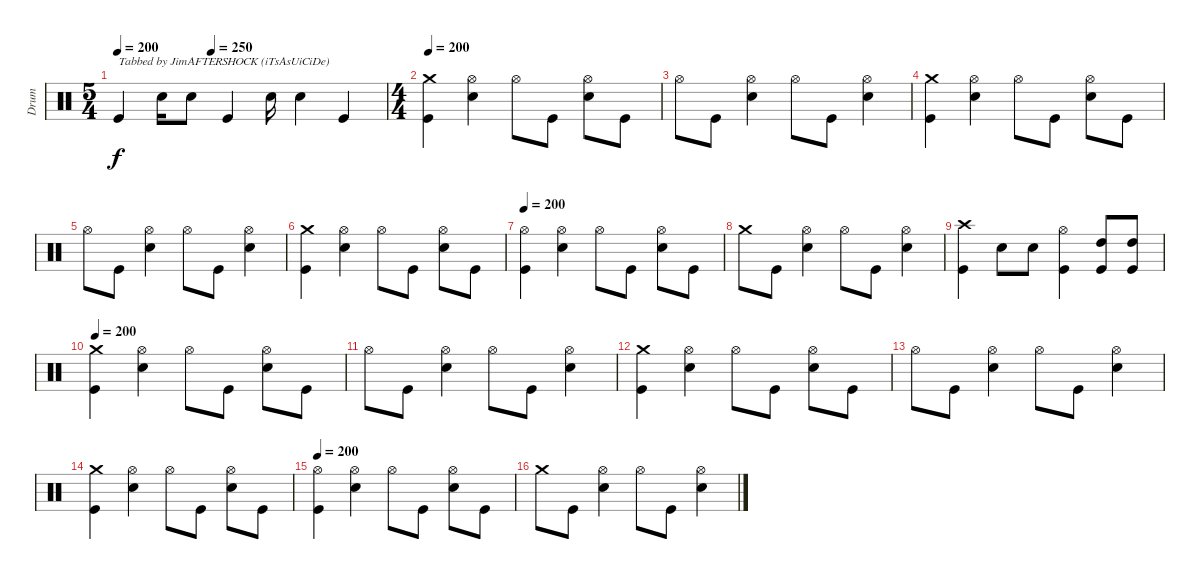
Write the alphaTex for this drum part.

\track ("Drum" "Drum") {instrument percussion}
\staff {score}
\articulation defaults
\ts (5 4)
\tempo 200
\tempo 400
\tempo (250 0.35)
\tempo 200
\clef neutral
\ks c "Kick (hit)".4{txt "Tabbed by JimAFTERSHOCK (iTsAsUiCiDe)" dy f} "Snare (hit) 2".16 "Snare (hit) 2".8 "Kick (hit)".4 "Snare (hit) 2".16 "Snare (hit) 2".4 "Kick (hit)".4
|
\ts (4 4)
\tempo 200
("Crash medium (hit)" "Kick (hit)").4 ("Hi-Hat (open)" "Snare (hit) 2").4 "Hi-Hat (open)".8 "Kick (hit)".8 ("Hi-Hat (open)" "Snare (hit) 2").8 "Kick (hit)".8 |
"Hi-Hat (open)".8 "Kick (hit)".8 ("Hi-Hat (open)" "Snare (hit) 2").4 "Hi-Hat (open)".8 "Kick (hit)".8 ("Hi-Hat (open)" "Snare (hit) 2").4 |
("Crash medium (hit)" "Kick (hit)").4 ("Hi-Hat (open)" "Snare (hit) 2").4 "Hi-Hat (open)".8 "Kick (hit)".8 ("Hi-Hat (open)" "Snare (hit) 2").8 "Kick (hit)".8 |
"Hi-Hat (open)".8 "Kick (hit)".8 ("Hi-Hat (open)" "Snare (hit) 2").4 "Hi-Hat (open)".8 "Kick (hit)".8 ("Hi-Hat (open)" "Snare (hit) 2").4 |
("Crash medium (hit)" "Kick (hit)").4 ("Hi-Hat (open)" "Snare (hit) 2").4 "Hi-Hat (open)".8 "Kick (hit)".8 ("Hi-Hat (open)" "Snare (hit) 2").8 "Kick (hit)".8 |
\tempo 200
("Hi-Hat (open)" "Kick (hit)").4 ("Hi-Hat (open)" "Snare (hit) 2").4 "Hi-Hat (open)".8 "Kick (hit)".8 ("Hi-Hat (open)" "Snare (hit) 2").8 "Kick (hit)".8 |
"Crash medium (hit)".8 "Kick (hit)".8 ("Hi-Hat (open)" "Snare (hit) 2").4 "Hi-Hat (open)".8 "Kick (hit)".8 ("Hi-Hat (open)" "Snare (hit) 2").4 |
("Kick (hit)" "Crash high (hit)").4 "Snare (hit) 2".8 "Snare (hit) 2".8 ("Kick (hit)" "Hi-Hat (open)").4 ("High Tom (hit)" "Kick (hit)").8 ("High Tom (hit)" "Kick (hit)").8 |
\tempo 200
("Crash medium (hit)" "Kick (hit)").4 ("Hi-Hat (open)" "Snare (hit) 2").4 "Hi-Hat (open)".8 "Kick (hit)".8 ("Hi-Hat (open)" "Snare (hit) 2").8 "Kick (hit)".8 |
"Hi-Hat (open)".8 "Kick (hit)".8 ("Hi-Hat (open)" "Snare (hit) 2").4 "Hi-Hat (open)".8 "Kick (hit)".8 ("Hi-Hat (open)" "Snare (hit) 2").4 |
("Crash medium (hit)" "Kick (hit)").4 ("Hi-Hat (open)" "Snare (hit) 2").4 "Hi-Hat (open)".8 "Kick (hit)".8 ("Hi-Hat (open)" "Snare (hit) 2").8 "Kick (hit)".8 |
"Hi-Hat (open)".8 "Kick (hit)".8 ("Hi-Hat (open)" "Snare (hit) 2").4 "Hi-Hat (open)".8 "Kick (hit)".8 ("Hi-Hat (open)" "Snare (hit) 2").4 |
("Crash medium (hit)" "Kick (hit)").4 ("Hi-Hat (open)" "Snare (hit) 2").4 "Hi-Hat (open)".8 "Kick (hit)".8 ("Hi-Hat (open)" "Snare (hit) 2").8 "Kick (hit)".8 |
\tempo 200
("Hi-Hat (open)" "Kick (hit)").4 ("Hi-Hat (open)" "Snare (hit) 2").4 "Hi-Hat (open)".8 "Kick (hit)".8 ("Hi-Hat (open)" "Snare (hit) 2").8 "Kick (hit)".8 |
"Crash medium (hit)".8 "Kick (hit)".8 ("Hi-Hat (open)" "Snare (hit) 2").4 "Hi-Hat (open)".8 "Kick (hit)".8 ("Hi-Hat (open)" "Snare (hit) 2").4
